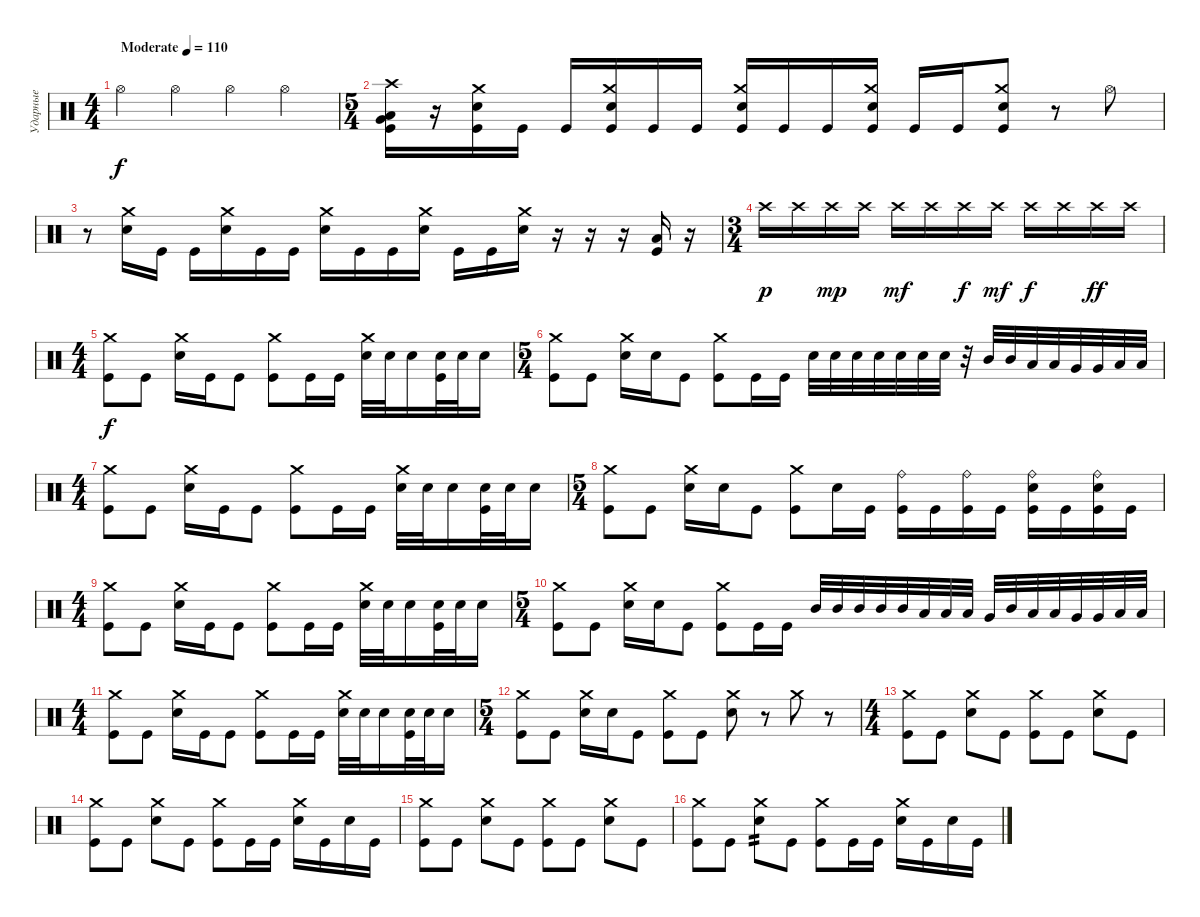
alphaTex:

\track ("Ударные" "Ударные") {instrument percussion}
\staff {score}
\articulation defaults
\ts (4 4)
\tempo (110 "Moderate")
\clef neutral
\ks c "Hi-Hat (open)".4{dy f} "Hi-Hat (open)".4 "Hi-Hat (open)".4 "Hi-Hat (open)".4
|
\ts (5 4)
("Crash high (hit)" "Very Low Tom (hit)" "Low Floor Tom (hit)" "Kick (hit)").16 r.16 ("Crash medium (hit)" "Electric Snare (hit)" "Kick (hit)").16 "Kick (hit)".16 "Kick (hit)".16 ("Crash medium (hit)" "Electric Snare (hit)" "Kick (hit)").16 "Kick (hit)".16 "Kick (hit)".16 ("Crash medium (hit)" "Electric Snare (hit)" "Kick (hit)").16 "Kick (hit)".16 "Kick (hit)".16 ("Crash medium (hit)" "Electric Snare (hit)" "Kick (hit)").16 "Kick (hit)".16 "Kick (hit)".16 ("Crash medium (hit)" "Electric Snare (hit)" "Kick (hit)").8 r.8 "Hi-Hat (open)".8 |
r.8 ("Crash medium (hit)" "Electric Snare (hit)").16 "Kick (hit)".16 "Kick (hit)".16 ("Crash medium (hit)" "Electric Snare (hit)").16 "Kick (hit)".16 "Kick (hit)".16 ("Crash medium (hit)" "Electric Snare (hit)").16 "Kick (hit)".16 "Kick (hit)".16 ("Crash medium (hit)" "Electric Snare (hit)").16 "Kick (hit)".16 "Kick (hit)".16 ("Crash medium (hit)" "Electric Snare (hit)").16 r.16 r.16 r.16 ("Kick (hit)" "Low Floor Tom (hit)").16 r.16 |
\ts (3 4)
"Crash high (hit)".16{dy p volume 2} "Crash high (hit)".16{volume 3} "Crash high (hit)".16{dy mp volume 4} "Crash high (hit)".16 "Crash high (hit)".16{dy mf volume 5} "Crash high (hit)".16 "Crash high (hit)".16{dy f volume 8} "Crash high (hit)".16{dy mf} "Crash high (hit)".16{dy f volume 11} "Crash high (hit)".16 "Crash high (hit)".16{dy ff volume 12} "Crash high (hit)".16 |
\ts (4 4)
("Crash medium (hit)" "Kick (hit)").8{dy f volume 16} "Kick (hit)".8 ("Crash medium (hit)" "Electric Snare (hit)").16 "Kick (hit)".16 "Kick (hit)".8 ("Crash medium (hit)" "Kick (hit)").8 "Kick (hit)".16 "Kick (hit)".16 ("Crash medium (hit)" "Electric Snare (hit)").32 "Electric Snare (hit)".32 "Electric Snare (hit)".16 ("Electric Snare (hit)" "Kick (hit)").32 "Electric Snare (hit)".32 "Electric Snare (hit)".16 |
\ts (5 4)
("Crash medium (hit)" "Kick (hit)").8 "Kick (hit)".8 ("Crash medium (hit)" "Electric Snare (hit)").16 "Electric Snare (hit)".16 "Kick (hit)".8 ("Crash medium (hit)" "Kick (hit)").8 "Kick (hit)".16 "Kick (hit)".16 "Electric Snare (hit)".32 "Electric Snare (hit)".32 "Electric Snare (hit)".32 "Electric Snare (hit)".32 "Electric Snare (hit)".32 "Electric Snare (hit)".32 "Electric Snare (hit)".32 r.32 "Mid Tom (hit)".32 "Mid Tom (hit)".32 "Low Tom (hit)".32 "Low Tom (hit)".32 "Very Low Tom (hit)".32 "Very Low Tom (hit)".32 "Low Floor Tom (hit)".32 "Low Floor Tom (hit)".32 |
\ts (4 4)
("Crash medium (hit)" "Kick (hit)").8{volume 16} "Kick (hit)".8 ("Crash medium (hit)" "Electric Snare (hit)").16 "Kick (hit)".16 "Kick (hit)".8 ("Crash medium (hit)" "Kick (hit)").8 "Kick (hit)".16 "Kick (hit)".16 ("Crash medium (hit)" "Electric Snare (hit)").32 "Electric Snare (hit)".32 "Electric Snare (hit)".16 ("Electric Snare (hit)" "Kick (hit)").32 "Electric Snare (hit)".32 "Electric Snare (hit)".16 |
\ts (5 4)
("Crash medium (hit)" "Kick (hit)").8 "Kick (hit)".8 ("Crash medium (hit)" "Electric Snare (hit)").16 "Electric Snare (hit)".16 "Kick (hit)".8 ("Crash medium (hit)" "Kick (hit)").8 "Electric Snare (hit)".16 "Kick (hit)".16 ("Ride (bell)" "Kick (hit)").16 "Kick (hit)".16 ("Ride (bell)" "Kick (hit)").16 "Kick (hit)".16 ("Ride (bell)" "Electric Snare (hit)" "Kick (hit)").16 "Kick (hit)".16 ("Ride (bell)" "Electric Snare (hit)" "Kick (hit)").16 "Kick (hit)".16 |
\ts (4 4)
("Crash medium (hit)" "Kick (hit)").8{volume 16} "Kick (hit)".8 ("Crash medium (hit)" "Electric Snare (hit)").16 "Kick (hit)".16 "Kick (hit)".8 ("Crash medium (hit)" "Kick (hit)").8 "Kick (hit)".16 "Kick (hit)".16 ("Crash medium (hit)" "Electric Snare (hit)").32 "Electric Snare (hit)".32 "Electric Snare (hit)".16 ("Electric Snare (hit)" "Kick (hit)").32 "Electric Snare (hit)".32 "Electric Snare (hit)".16 |
\ts (5 4)
("Crash medium (hit)" "Kick (hit)").8 "Kick (hit)".8 ("Crash medium (hit)" "Electric Snare (hit)").16 "Electric Snare (hit)".16 "Kick (hit)".8 ("Crash medium (hit)" "Kick (hit)").8 "Kick (hit)".16 "Kick (hit)".16 "Mid Tom (hit)".32 "Mid Tom (hit)".32 "Mid Tom (hit)".32 "Mid Tom (hit)".32 "Mid Tom (hit)".32 "Low Tom (hit)".32 "Low Tom (hit)".32 "Low Tom (hit)".32 "Very Low Tom (hit)".32 "Mid Tom (hit)".32 "Low Tom (hit)".32 "Low Tom (hit)".32 "Very Low Tom (hit)".32 "Very Low Tom (hit)".32 "Low Floor Tom (hit)".32 "Low Floor Tom (hit)".32 |
\ts (4 4)
("Crash medium (hit)" "Kick (hit)").8{volume 16} "Kick (hit)".8 ("Crash medium (hit)" "Electric Snare (hit)").16 "Kick (hit)".16 "Kick (hit)".8 ("Crash medium (hit)" "Kick (hit)").8 "Kick (hit)".16 "Kick (hit)".16 ("Crash medium (hit)" "Electric Snare (hit)").32 "Electric Snare (hit)".32 "Electric Snare (hit)".16 ("Electric Snare (hit)" "Kick (hit)").32 "Electric Snare (hit)".32 "Electric Snare (hit)".16 |
\ts (5 4)
("Crash medium (hit)" "Kick (hit)").8 "Kick (hit)".8 ("Crash medium (hit)" "Electric Snare (hit)").16 "Electric Snare (hit)".16 "Kick (hit)".8 ("Crash medium (hit)" "Kick (hit)").8 "Kick (hit)".8 ("Crash medium (hit)" "Electric Snare (hit)").8 r.8 "Crash medium (hit)".8 r.8 |
\ts (4 4)
("Crash medium (hit)" "Kick (hit)").8 "Kick (hit)".8 ("Crash medium (hit)" "Electric Snare (hit)").8 "Kick (hit)".8 ("Crash medium (hit)" "Kick (hit)").8 "Kick (hit)".8 ("Crash medium (hit)" "Electric Snare (hit)").8 "Kick (hit)".8 |
("Crash medium (hit)" "Kick (hit)").8 "Kick (hit)".8 ("Crash medium (hit)" "Electric Snare (hit)").8 "Kick (hit)".8 ("Crash medium (hit)" "Kick (hit)").8 "Kick (hit)".16 "Kick (hit)".16 ("Crash medium (hit)" "Electric Snare (hit)").16 "Kick (hit)".16 "Electric Snare (hit)".16 "Kick (hit)".16 |
("Crash medium (hit)" "Kick (hit)").8 "Kick (hit)".8 ("Crash medium (hit)" "Electric Snare (hit)").8 "Kick (hit)".8 ("Crash medium (hit)" "Kick (hit)").8 "Kick (hit)".8 ("Crash medium (hit)" "Electric Snare (hit)").8 "Kick (hit)".8 |
("Crash medium (hit)" "Kick (hit)").8 "Kick (hit)".8 ("Crash medium (hit)" "Electric Snare (hit)").8{tp 2} "Kick (hit)".8 ("Crash medium (hit)" "Kick (hit)").8 "Kick (hit)".16 "Kick (hit)".16 ("Crash medium (hit)" "Electric Snare (hit)").16 "Kick (hit)".16 "Electric Snare (hit)".16 "Kick (hit)".16
